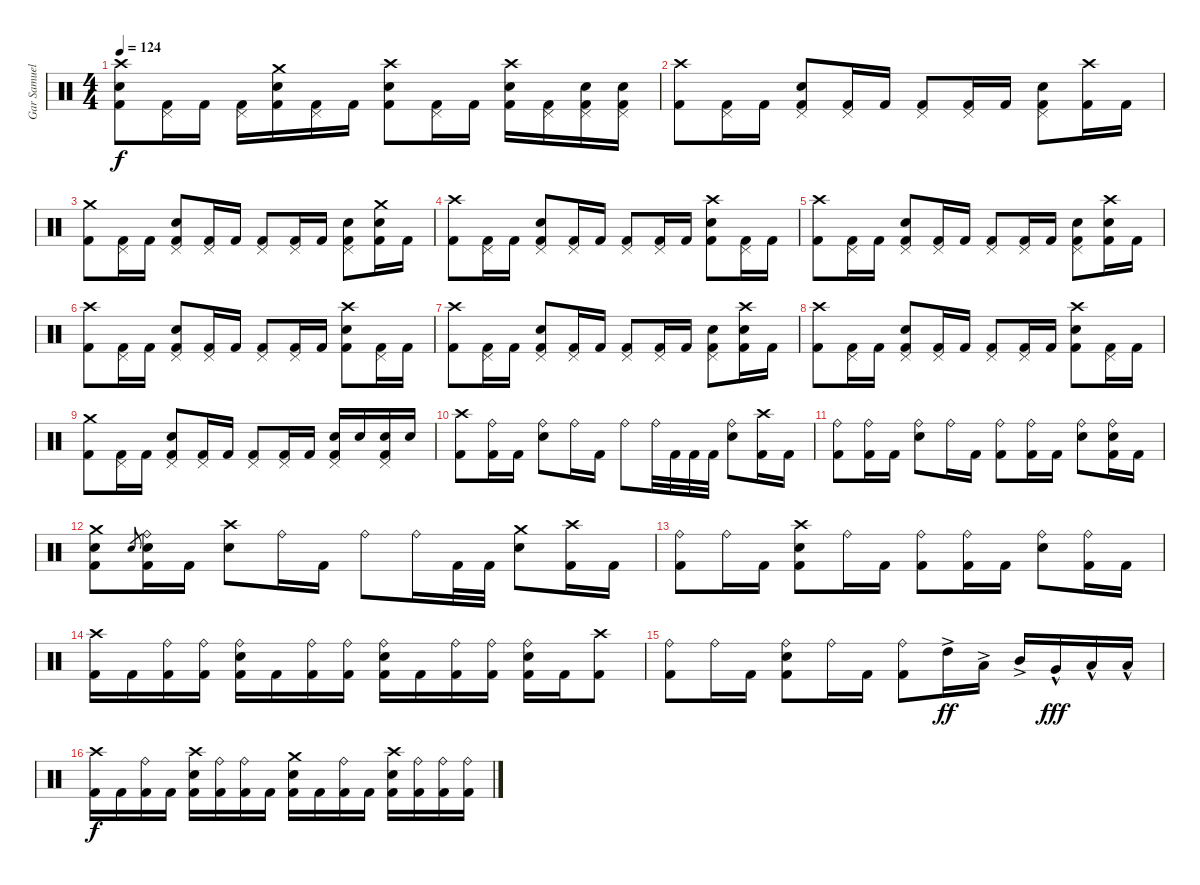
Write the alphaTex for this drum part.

\track ("Gar Samuelson" "Gar Samuel") {instrument percussion}
\staff {score}
\articulation defaults
\ts (4 4)
\tempo 124
\clef neutral
\ks c
("Crash high (hit)" "Electric Snare (hit)" "Kick (hit) 2").8{dy f} ("Pedal Hi-Hat (hit)" "Kick (hit) 2").16 "Kick (hit) 2".16 ("Pedal Hi-Hat (hit)" "Kick (hit) 2").16 ("Crash medium (hit)" "Electric Snare (hit)" "Kick (hit) 2").16 ("Pedal Hi-Hat (hit)" "Kick (hit) 2").16 "Kick (hit) 2".16 ("Crash high (hit)" "Electric Snare (hit)" "Kick (hit) 2").8 ("Pedal Hi-Hat (hit)" "Kick (hit) 2").16 "Kick (hit) 2".16 ("Crash high (hit)" "Electric Snare (hit)" "Kick (hit) 2").16 ("Pedal Hi-Hat (hit)" "Kick (hit) 2").16 ("Pedal Hi-Hat (hit)" "Electric Snare (hit)" "Kick (hit) 2").16 ("Pedal Hi-Hat (hit)" "Electric Snare (hit)" "Kick (hit) 2").16 |
("Crash high (hit)" "Kick (hit) 2").8 ("Pedal Hi-Hat (hit)" "Kick (hit) 2").16 "Kick (hit) 2".16 ("Pedal Hi-Hat (hit)" "Electric Snare (hit)" "Kick (hit) 2").8 ("Pedal Hi-Hat (hit)" "Kick (hit) 2").16 "Kick (hit) 2".16 ("Pedal Hi-Hat (hit)" "Kick (hit) 2").8 ("Pedal Hi-Hat (hit)" "Kick (hit) 2").16 "Kick (hit) 2".16 ("Pedal Hi-Hat (hit)" "Electric Snare (hit)" "Kick (hit) 2").8 ("Crash high (hit)" "Kick (hit) 2").16 "Kick (hit) 2".16 |
("Crash medium (hit)" "Kick (hit) 2").8 ("Pedal Hi-Hat (hit)" "Kick (hit) 2").16 "Kick (hit) 2".16 ("Pedal Hi-Hat (hit)" "Electric Snare (hit)" "Kick (hit) 2").8 ("Pedal Hi-Hat (hit)" "Kick (hit) 2").16 "Kick (hit) 2".16 ("Pedal Hi-Hat (hit)" "Kick (hit) 2").8 ("Pedal Hi-Hat (hit)" "Kick (hit) 2").16 "Kick (hit) 2".16 ("Pedal Hi-Hat (hit)" "Electric Snare (hit)" "Kick (hit) 2").8 ("Crash medium (hit)" "Electric Snare (hit)" "Kick (hit) 2").16 "Kick (hit) 2".16 |
("Crash high (hit)" "Kick (hit) 2").8 ("Pedal Hi-Hat (hit)" "Kick (hit) 2").16 "Kick (hit) 2".16 ("Pedal Hi-Hat (hit)" "Electric Snare (hit)" "Kick (hit) 2").8 ("Pedal Hi-Hat (hit)" "Kick (hit) 2").16 "Kick (hit) 2".16 ("Pedal Hi-Hat (hit)" "Kick (hit) 2").8 ("Pedal Hi-Hat (hit)" "Kick (hit) 2").16 "Kick (hit) 2".16 ("Crash high (hit)" "Electric Snare (hit)" "Kick (hit) 2").8 ("Pedal Hi-Hat (hit)" "Kick (hit) 2").16 "Kick (hit) 2".16 |
("Crash high (hit)" "Kick (hit) 2").8 ("Pedal Hi-Hat (hit)" "Kick (hit) 2").16 "Kick (hit) 2".16 ("Pedal Hi-Hat (hit)" "Electric Snare (hit)" "Kick (hit) 2").8 ("Pedal Hi-Hat (hit)" "Kick (hit) 2").16 "Kick (hit) 2".16 ("Pedal Hi-Hat (hit)" "Kick (hit) 2").8 ("Pedal Hi-Hat (hit)" "Kick (hit) 2").16 "Kick (hit) 2".16 ("Pedal Hi-Hat (hit)" "Electric Snare (hit)" "Kick (hit) 2").8 ("Crash high (hit)" "Electric Snare (hit)" "Kick (hit) 2").16 "Kick (hit) 2".16 |
("Crash high (hit)" "Kick (hit) 2").8 ("Pedal Hi-Hat (hit)" "Kick (hit) 2").16 "Kick (hit) 2".16 ("Pedal Hi-Hat (hit)" "Electric Snare (hit)" "Kick (hit) 2").8 ("Pedal Hi-Hat (hit)" "Kick (hit) 2").16 "Kick (hit) 2".16 ("Pedal Hi-Hat (hit)" "Kick (hit) 2").8 ("Pedal Hi-Hat (hit)" "Kick (hit) 2").16 "Kick (hit) 2".16 ("Crash high (hit)" "Electric Snare (hit)" "Kick (hit) 2").8 ("Pedal Hi-Hat (hit)" "Kick (hit) 2").16 "Kick (hit) 2".16 |
("Crash high (hit)" "Kick (hit) 2").8 ("Pedal Hi-Hat (hit)" "Kick (hit) 2").16 "Kick (hit) 2".16 ("Pedal Hi-Hat (hit)" "Electric Snare (hit)" "Kick (hit) 2").8 ("Pedal Hi-Hat (hit)" "Kick (hit) 2").16 "Kick (hit) 2".16 ("Pedal Hi-Hat (hit)" "Kick (hit) 2").8 ("Pedal Hi-Hat (hit)" "Kick (hit) 2").16 "Kick (hit) 2".16 ("Pedal Hi-Hat (hit)" "Electric Snare (hit)" "Kick (hit) 2").8 ("Crash high (hit)" "Electric Snare (hit)" "Kick (hit) 2").16 "Kick (hit) 2".16 |
("Crash high (hit)" "Kick (hit) 2").8 ("Pedal Hi-Hat (hit)" "Kick (hit) 2").16 "Kick (hit) 2".16 ("Pedal Hi-Hat (hit)" "Electric Snare (hit)" "Kick (hit) 2").8 ("Pedal Hi-Hat (hit)" "Kick (hit) 2").16 "Kick (hit) 2".16 ("Pedal Hi-Hat (hit)" "Kick (hit) 2").8 ("Pedal Hi-Hat (hit)" "Kick (hit) 2").16 "Kick (hit) 2".16 ("Crash high (hit)" "Electric Snare (hit)" "Kick (hit) 2").8 ("Pedal Hi-Hat (hit)" "Kick (hit) 2").16 "Kick (hit) 2".16 |
("Crash medium (hit)" "Kick (hit) 2").8 ("Pedal Hi-Hat (hit)" "Kick (hit) 2").16 "Kick (hit) 2".16 ("Pedal Hi-Hat (hit)" "Electric Snare (hit)" "Kick (hit) 2").8 ("Pedal Hi-Hat (hit)" "Kick (hit) 2").16 "Kick (hit) 2".16 ("Pedal Hi-Hat (hit)" "Kick (hit) 2").8 ("Pedal Hi-Hat (hit)" "Kick (hit) 2").16 "Kick (hit) 2".16 ("Pedal Hi-Hat (hit)" "Electric Snare (hit)" "Kick (hit) 2").16 "Electric Snare (hit)".16 ("Pedal Hi-Hat (hit)" "Electric Snare (hit)" "Kick (hit) 2").16 "Electric Snare (hit)".16 |
("Crash high (hit)" "Kick (hit) 2").8 ("Ride (bell)" "Kick (hit) 2").16 "Kick (hit) 2".16 ("Ride (bell)" "Electric Snare (hit)").8 "Ride (bell)".16 "Kick (hit) 2".16 "Ride (bell)".8 "Ride (bell)".32 "Kick (hit) 2".32 "Kick (hit) 2".32 "Kick (hit) 2".32 ("Ride (bell)" "Electric Snare (hit)").8 ("Crash high (hit)" "Kick (hit) 2").16 "Kick (hit) 2".16 |
("Ride (bell)" "Kick (hit) 2").8 ("Ride (bell)" "Kick (hit) 2").16 "Kick (hit) 2".16 ("Ride (bell)" "Electric Snare (hit)").8 "Ride (bell)".16 "Kick (hit) 2".16 ("Ride (bell)" "Kick (hit) 2").8 ("Ride (bell)" "Kick (hit) 2").16 "Kick (hit) 2".16 ("Ride (bell)" "Electric Snare (hit)").8 ("Ride (bell)" "Electric Snare (hit)" "Kick (hit) 2").16 "Kick (hit) 2".16 |
("Crash medium (hit)" "Electric Snare (hit)" "Kick (hit) 2").8 "Electric Snare (hit)".8{gr} ("Ride (bell)" "Electric Snare (hit)" "Kick (hit) 2").16 "Kick (hit) 2".16 ("Crash high (hit)" "Electric Snare (hit)").8 "Ride (bell)".16 "Kick (hit) 2".16 "Ride (bell)".8 "Ride (bell)".16 "Kick (hit) 2".32 "Kick (hit) 2".32 ("Crash medium (hit)" "Electric Snare (hit)").8 ("Crash high (hit)" "Kick (hit) 2").16 "Kick (hit) 2".16 |
("Ride (bell)" "Kick (hit) 2").8 "Ride (bell)".16 "Kick (hit) 2".16 ("Crash high (hit)" "Electric Snare (hit)" "Kick (hit) 2").8 "Ride (bell)".16 "Kick (hit) 2".16 ("Ride (bell)" "Kick (hit) 2").8 ("Ride (bell)" "Kick (hit) 2").16 "Kick (hit) 2".16 ("Ride (bell)" "Electric Snare (hit)").8 ("Ride (bell)" "Kick (hit) 2").16 "Kick (hit) 2".16 |
("Crash high (hit)" "Kick (hit) 2").16 "Kick (hit) 2".16 ("Ride (bell)" "Kick (hit) 2").16 ("Ride (bell)" "Kick (hit) 2").16 ("Ride (bell)" "Electric Snare (hit)" "Kick (hit) 2").16 "Kick (hit) 2".16 ("Ride (bell)" "Kick (hit) 2").16 ("Ride (bell)" "Kick (hit) 2").16 ("Ride (bell)" "Electric Snare (hit)" "Kick (hit) 2").16 "Kick (hit) 2".16 ("Ride (bell)" "Kick (hit) 2").16 ("Ride (bell)" "Kick (hit) 2").16 ("Ride (bell)" "Electric Snare (hit)" "Kick (hit) 2").16 "Kick (hit) 2".16 ("Crash high (hit)" "Kick (hit) 2").8 |
("Ride (bell)" "Kick (hit) 2").8 "Ride (bell)".16 "Kick (hit) 2".16 ("Ride (bell)" "Electric Snare (hit)" "Kick (hit) 2").8 "Ride (bell)".16 "Kick (hit) 2".16 ("Ride (bell)" "Kick (hit) 2").8 "High Tom (hit)"{ac}.16{dy ff} "Low Tom (hit)"{ac}.16 "Mid Tom (hit)"{ac}.16 "Very Low Tom (hit)"{hac}.16{dy fff} "Low Tom (hit)"{hac}.16 "Low Floor Tom (hit)"{hac}.16 |
("Crash high (hit)" "Kick (hit) 2").16{dy f} "Kick (hit) 2".16 ("Ride (bell)" "Kick (hit) 2").16 "Kick (hit) 2".16 ("Crash high (hit)" "Electric Snare (hit)" "Kick (hit) 2").16 ("Ride (bell)" "Kick (hit) 2").16 ("Ride (bell)" "Kick (hit) 2").16 "Kick (hit) 2".16 ("Crash medium (hit)" "Electric Snare (hit)" "Kick (hit) 2").16 "Kick (hit) 2".16 ("Ride (bell)" "Kick (hit) 2").16 "Kick (hit) 2".16 ("Crash high (hit)" "Electric Snare (hit)" "Kick (hit) 2").16 ("Ride (bell)" "Kick (hit) 2").16 ("Ride (bell)" "Kick (hit) 2").16 ("Ride (bell)" "Kick (hit) 2").16
